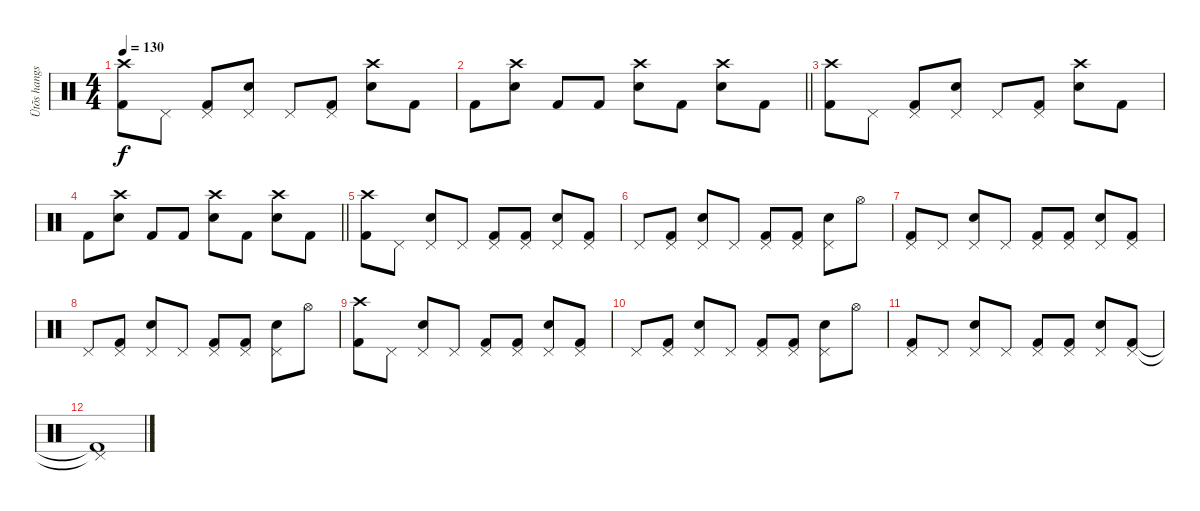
\track ("Ütõs hangszer" "Ütõs hangs") {instrument percussion}
\staff {score}
\articulation defaults
\ts (4 4)
\tempo 130
\clef neutral
\ks c
("Crash high (hit)" "Kick (hit) 2").8{dy f} "Pedal Hi-Hat (hit)".8 ("Pedal Hi-Hat (hit)" "Kick (hit) 2").8 ("Pedal Hi-Hat (hit)" "Snare (hit) 2").8 "Pedal Hi-Hat (hit)".8 ("Pedal Hi-Hat (hit)" "Kick (hit) 2").8 ("Crash high (hit)" "Snare (hit) 2").8 "Kick (hit) 2".8 |
\barLineRight lightlight "Kick (hit) 2".8
("Crash high (hit)" "Snare (hit) 2").8 "Kick (hit) 2".8 "Kick (hit) 2".8 ("Crash high (hit)" "Snare (hit) 2").8 "Kick (hit) 2".8 ("Crash high (hit)" "Snare (hit) 2").8 "Kick (hit) 2".8 |
("Crash high (hit)" "Kick (hit) 2").8 "Pedal Hi-Hat (hit)".8 ("Pedal Hi-Hat (hit)" "Kick (hit) 2").8 ("Pedal Hi-Hat (hit)" "Snare (hit) 2").8 "Pedal Hi-Hat (hit)".8 ("Pedal Hi-Hat (hit)" "Kick (hit) 2").8 ("Crash high (hit)" "Snare (hit) 2").8 "Kick (hit) 2".8 |
\barLineRight lightlight "Kick (hit) 2".8
("Crash high (hit)" "Snare (hit) 2").8 "Kick (hit) 2".8 "Kick (hit) 2".8 ("Crash high (hit)" "Snare (hit) 2").8 "Kick (hit) 2".8 ("Crash high (hit)" "Snare (hit) 2").8 "Kick (hit) 2".8 |
("Crash high (hit)" "Kick (hit) 2").8 "Pedal Hi-Hat (hit)".8 ("Pedal Hi-Hat (hit)" "Snare (hit) 2").8 "Pedal Hi-Hat (hit)".8 ("Pedal Hi-Hat (hit)" "Kick (hit) 2").8 ("Pedal Hi-Hat (hit)" "Kick (hit) 2").8 ("Pedal Hi-Hat (hit)" "Snare (hit) 2").8 ("Pedal Hi-Hat (hit)" "Kick (hit) 2").8 |
"Pedal Hi-Hat (hit)".8 ("Pedal Hi-Hat (hit)" "Kick (hit) 2").8 ("Pedal Hi-Hat (hit)" "Snare (hit) 2").8 "Pedal Hi-Hat (hit)".8 ("Pedal Hi-Hat (hit)" "Kick (hit) 2").8 ("Pedal Hi-Hat (hit)" "Kick (hit) 2").8 ("Pedal Hi-Hat (hit)" "Snare (hit) 2").8 "Hi-Hat (open)".8 |
("Pedal Hi-Hat (hit)" "Kick (hit) 2").8 "Pedal Hi-Hat (hit)".8 ("Pedal Hi-Hat (hit)" "Snare (hit) 2").8 "Pedal Hi-Hat (hit)".8 ("Pedal Hi-Hat (hit)" "Kick (hit) 2").8 ("Pedal Hi-Hat (hit)" "Kick (hit) 2").8 ("Pedal Hi-Hat (hit)" "Snare (hit) 2").8 ("Pedal Hi-Hat (hit)" "Kick (hit) 2").8 |
"Pedal Hi-Hat (hit)".8 ("Pedal Hi-Hat (hit)" "Kick (hit) 2").8 ("Pedal Hi-Hat (hit)" "Snare (hit) 2").8 "Pedal Hi-Hat (hit)".8 ("Pedal Hi-Hat (hit)" "Kick (hit) 2").8 ("Pedal Hi-Hat (hit)" "Kick (hit) 2").8 ("Pedal Hi-Hat (hit)" "Snare (hit) 2").8 "Hi-Hat (open)".8 |
("Crash high (hit)" "Kick (hit) 2").8 "Pedal Hi-Hat (hit)".8 ("Pedal Hi-Hat (hit)" "Snare (hit) 2").8 "Pedal Hi-Hat (hit)".8 ("Pedal Hi-Hat (hit)" "Kick (hit) 2").8 ("Pedal Hi-Hat (hit)" "Kick (hit) 2").8 ("Pedal Hi-Hat (hit)" "Snare (hit) 2").8 ("Pedal Hi-Hat (hit)" "Kick (hit) 2").8 |
"Pedal Hi-Hat (hit)".8 ("Pedal Hi-Hat (hit)" "Kick (hit) 2").8 ("Pedal Hi-Hat (hit)" "Snare (hit) 2").8 "Pedal Hi-Hat (hit)".8 ("Pedal Hi-Hat (hit)" "Kick (hit) 2").8 ("Pedal Hi-Hat (hit)" "Kick (hit) 2").8 ("Pedal Hi-Hat (hit)" "Snare (hit) 2").8 "Hi-Hat (open)".8 |
("Pedal Hi-Hat (hit)" "Kick (hit) 2").8 "Pedal Hi-Hat (hit)".8 ("Pedal Hi-Hat (hit)" "Snare (hit) 2").8 "Pedal Hi-Hat (hit)".8 ("Pedal Hi-Hat (hit)" "Kick (hit) 2").8 ("Pedal Hi-Hat (hit)" "Kick (hit) 2").8 ("Pedal Hi-Hat (hit)" "Snare (hit) 2").8 ("Pedal Hi-Hat (hit)" "Kick (hit) 2").8 |
("Pedal Hi-Hat (hit)"{t} "Kick (hit) 2"{t}).1
